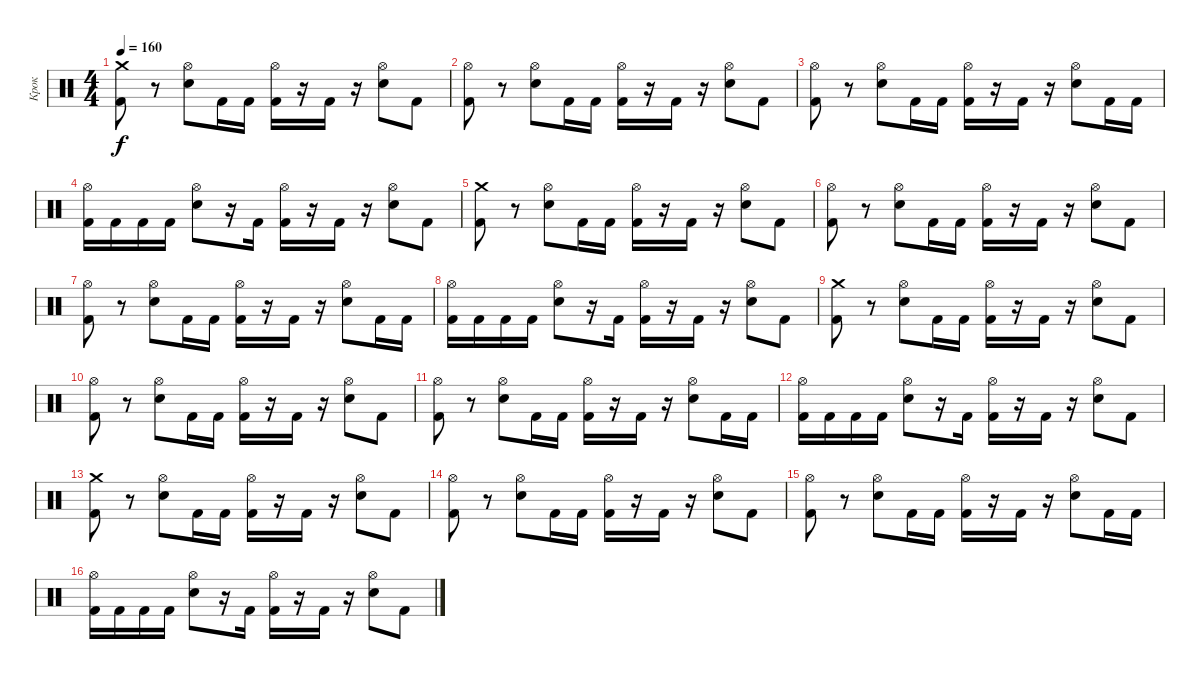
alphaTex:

\track ("Крок" "Крок") {instrument percussion}
\staff {score}
\articulation defaults
\ts (4 4)
\tempo 160
\clef neutral
\ks c
("Kick (hit) 2" "Crash medium (hit)").8{dy f} r.8 ("Electric Snare (hit)" "Hi-Hat (open)").8 "Kick (hit) 2".16 "Kick (hit) 2".16 ("Kick (hit) 2" "Hi-Hat (open)").16 r.16 "Kick (hit) 2".16 r.16 ("Electric Snare (hit)" "Hi-Hat (open)").8 "Kick (hit) 2".8 |
("Kick (hit) 2" "Hi-Hat (open)").8 r.8 ("Electric Snare (hit)" "Hi-Hat (open)").8 "Kick (hit) 2".16 "Kick (hit) 2".16 ("Kick (hit) 2" "Hi-Hat (open)").16 r.16 "Kick (hit) 2".16 r.16 ("Electric Snare (hit)" "Hi-Hat (open)").8 "Kick (hit) 2".8 |
("Kick (hit) 2" "Hi-Hat (open)").8 r.8 ("Electric Snare (hit)" "Hi-Hat (open)").8 "Kick (hit) 2".16 "Kick (hit) 2".16 ("Kick (hit) 2" "Hi-Hat (open)").16 r.16 "Kick (hit) 2".16 r.16 ("Electric Snare (hit)" "Hi-Hat (open)").8 "Kick (hit) 2".16 "Kick (hit) 2".16 |
("Kick (hit) 2" "Hi-Hat (open)").16 "Kick (hit) 2".16 "Kick (hit) 2".16 "Kick (hit) 2".16 ("Electric Snare (hit)" "Hi-Hat (open)").8 r.16 "Kick (hit) 2".16 ("Kick (hit) 2" "Hi-Hat (open)").16 r.16 "Kick (hit) 2".16 r.16 ("Electric Snare (hit)" "Hi-Hat (open)").8 "Kick (hit) 2".8 |
("Kick (hit) 2" "Crash medium (hit)").8 r.8 ("Electric Snare (hit)" "Hi-Hat (open)").8 "Kick (hit) 2".16 "Kick (hit) 2".16 ("Kick (hit) 2" "Hi-Hat (open)").16 r.16 "Kick (hit) 2".16 r.16 ("Electric Snare (hit)" "Hi-Hat (open)").8 "Kick (hit) 2".8 |
("Kick (hit) 2" "Hi-Hat (open)").8 r.8 ("Electric Snare (hit)" "Hi-Hat (open)").8 "Kick (hit) 2".16 "Kick (hit) 2".16 ("Kick (hit) 2" "Hi-Hat (open)").16 r.16 "Kick (hit) 2".16 r.16 ("Electric Snare (hit)" "Hi-Hat (open)").8 "Kick (hit) 2".8 |
("Kick (hit) 2" "Hi-Hat (open)").8 r.8 ("Electric Snare (hit)" "Hi-Hat (open)").8 "Kick (hit) 2".16 "Kick (hit) 2".16 ("Kick (hit) 2" "Hi-Hat (open)").16 r.16 "Kick (hit) 2".16 r.16 ("Electric Snare (hit)" "Hi-Hat (open)").8 "Kick (hit) 2".16 "Kick (hit) 2".16 |
("Kick (hit) 2" "Hi-Hat (open)").16 "Kick (hit) 2".16 "Kick (hit) 2".16 "Kick (hit) 2".16 ("Electric Snare (hit)" "Hi-Hat (open)").8 r.16 "Kick (hit) 2".16 ("Kick (hit) 2" "Hi-Hat (open)").16 r.16 "Kick (hit) 2".16 r.16 ("Electric Snare (hit)" "Hi-Hat (open)").8 "Kick (hit) 2".8 |
("Kick (hit) 2" "Crash medium (hit)").8 r.8 ("Electric Snare (hit)" "Hi-Hat (open)").8 "Kick (hit) 2".16 "Kick (hit) 2".16 ("Kick (hit) 2" "Hi-Hat (open)").16 r.16 "Kick (hit) 2".16 r.16 ("Electric Snare (hit)" "Hi-Hat (open)").8 "Kick (hit) 2".8 |
("Kick (hit) 2" "Hi-Hat (open)").8 r.8 ("Electric Snare (hit)" "Hi-Hat (open)").8 "Kick (hit) 2".16 "Kick (hit) 2".16 ("Kick (hit) 2" "Hi-Hat (open)").16 r.16 "Kick (hit) 2".16 r.16 ("Electric Snare (hit)" "Hi-Hat (open)").8 "Kick (hit) 2".8 |
("Kick (hit) 2" "Hi-Hat (open)").8 r.8 ("Electric Snare (hit)" "Hi-Hat (open)").8 "Kick (hit) 2".16 "Kick (hit) 2".16 ("Kick (hit) 2" "Hi-Hat (open)").16 r.16 "Kick (hit) 2".16 r.16 ("Electric Snare (hit)" "Hi-Hat (open)").8 "Kick (hit) 2".16 "Kick (hit) 2".16 |
("Kick (hit) 2" "Hi-Hat (open)").16 "Kick (hit) 2".16 "Kick (hit) 2".16 "Kick (hit) 2".16 ("Electric Snare (hit)" "Hi-Hat (open)").8 r.16 "Kick (hit) 2".16 ("Kick (hit) 2" "Hi-Hat (open)").16 r.16 "Kick (hit) 2".16 r.16 ("Electric Snare (hit)" "Hi-Hat (open)").8 "Kick (hit) 2".8 |
("Kick (hit) 2" "Crash medium (hit)").8 r.8 ("Electric Snare (hit)" "Hi-Hat (open)").8 "Kick (hit) 2".16 "Kick (hit) 2".16 ("Kick (hit) 2" "Hi-Hat (open)").16 r.16 "Kick (hit) 2".16 r.16 ("Electric Snare (hit)" "Hi-Hat (open)").8 "Kick (hit) 2".8 |
("Kick (hit) 2" "Hi-Hat (open)").8 r.8 ("Electric Snare (hit)" "Hi-Hat (open)").8 "Kick (hit) 2".16 "Kick (hit) 2".16 ("Kick (hit) 2" "Hi-Hat (open)").16 r.16 "Kick (hit) 2".16 r.16 ("Electric Snare (hit)" "Hi-Hat (open)").8 "Kick (hit) 2".8 |
("Kick (hit) 2" "Hi-Hat (open)").8 r.8 ("Electric Snare (hit)" "Hi-Hat (open)").8 "Kick (hit) 2".16 "Kick (hit) 2".16 ("Kick (hit) 2" "Hi-Hat (open)").16 r.16 "Kick (hit) 2".16 r.16 ("Electric Snare (hit)" "Hi-Hat (open)").8 "Kick (hit) 2".16 "Kick (hit) 2".16 |
("Kick (hit) 2" "Hi-Hat (open)").16 "Kick (hit) 2".16 "Kick (hit) 2".16 "Kick (hit) 2".16 ("Electric Snare (hit)" "Hi-Hat (open)").8 r.16 "Kick (hit) 2".16 ("Kick (hit) 2" "Hi-Hat (open)").16 r.16 "Kick (hit) 2".16 r.16 ("Electric Snare (hit)" "Hi-Hat (open)").8 "Kick (hit) 2".8
